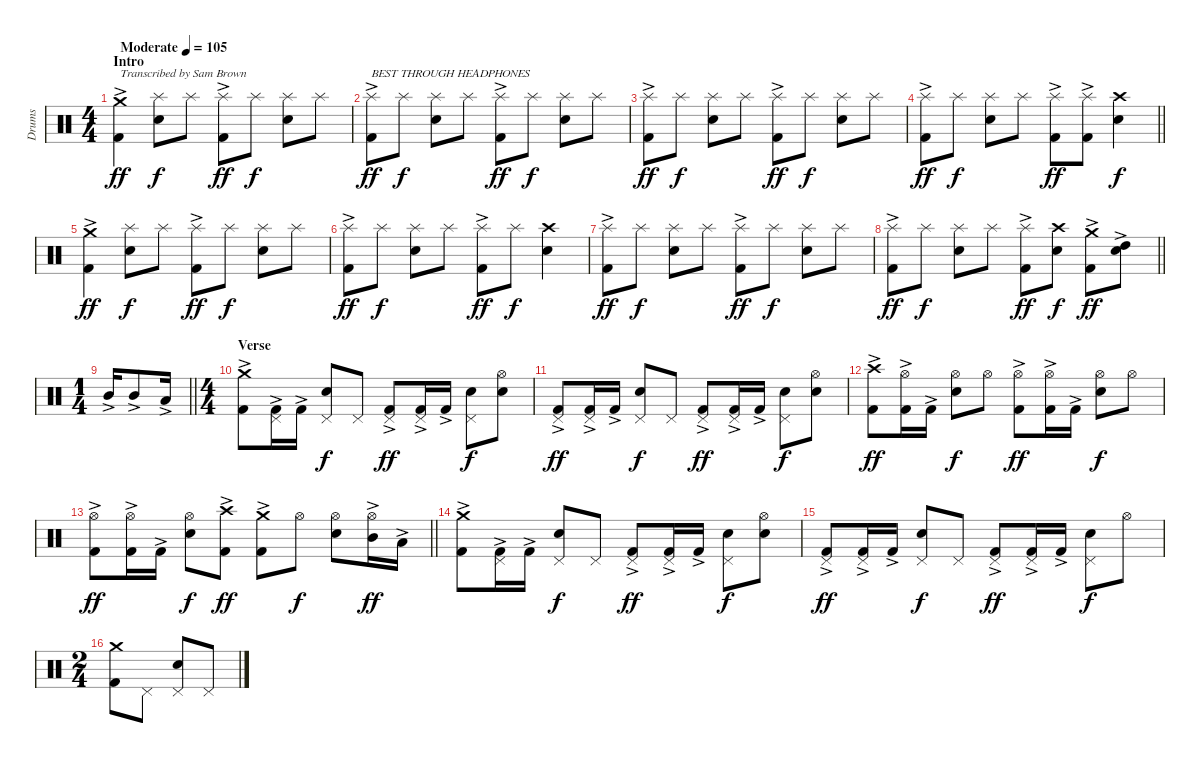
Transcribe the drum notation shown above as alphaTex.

\track ("Drums" "Drums") {instrument percussion}
\staff {score}
\articulation defaults
\ts (4 4)
\section ("" "Intro")
\tempo (105 "Moderate")
\clef neutral
\ks c
("Kick (hit) 2"{ac} "Crash medium (hit)").4{txt "Transcribed by Sam Brown" dy ff} ("Snare (hit) 2" "Splash (hit)").8{dy f} "Splash (hit)".8 ("Kick (hit) 2"{ac} "Splash (hit)").8{dy ff} "Splash (hit)".8{dy f} ("Snare (hit) 2" "Splash (hit)").8 "Splash (hit)".8 |
("Kick (hit) 2"{ac} "Splash (hit)").8{txt "BEST THROUGH HEADPHONES" dy ff} "Splash (hit)".8{dy f} ("Snare (hit) 2" "Splash (hit)").8 "Splash (hit)".8 ("Kick (hit) 2"{ac} "Splash (hit)").8{dy ff} "Splash (hit)".8{dy f} ("Snare (hit) 2" "Splash (hit)").8 "Splash (hit)".8 |
("Kick (hit) 2"{ac} "Splash (hit)").8{dy ff} "Splash (hit)".8{dy f} ("Snare (hit) 2" "Splash (hit)").8 "Splash (hit)".8 ("Kick (hit) 2"{ac} "Splash (hit)").8{dy ff} "Splash (hit)".8{dy f} ("Snare (hit) 2" "Splash (hit)").8 "Splash (hit)".8 |
\barLineRight lightlight
("Kick (hit) 2"{ac} "Splash (hit)").8{dy ff} "Splash (hit)".8{dy f} ("Snare (hit) 2" "Splash (hit)").8 "Splash (hit)".8 ("Kick (hit) 2"{ac} "Splash (hit)").8{dy ff} ("Kick (hit) 2"{ac} "Splash (hit)").8 ("Snare (hit) 2" "Crash high (hit)").4{dy f} |
\section ("" "")
("Kick (hit) 2"{ac} "Crash medium (hit)").4{dy ff} ("Snare (hit) 2" "Splash (hit)").8{dy f} "Splash (hit)".8 ("Kick (hit) 2"{ac} "Splash (hit)").8{dy ff} "Splash (hit)".8{dy f} ("Snare (hit) 2" "Splash (hit)").8 "Splash (hit)".8 |
("Kick (hit) 2"{ac} "Splash (hit)").8{dy ff} "Splash (hit)".8{dy f} ("Snare (hit) 2" "Splash (hit)").8 "Splash (hit)".8 ("Kick (hit) 2"{ac} "Splash (hit)").8{dy ff} "Splash (hit)".8{dy f} ("Snare (hit) 2" "Crash high (hit)").4 |
("Kick (hit) 2"{ac} "Splash (hit)").8{dy ff} "Splash (hit)".8{dy f} ("Snare (hit) 2" "Splash (hit)").8 "Splash (hit)".8 ("Kick (hit) 2"{ac} "Splash (hit)").8{dy ff} "Splash (hit)".8{dy f} ("Snare (hit) 2" "Splash (hit)").8 "Splash (hit)".8 |
\barLineRight lightlight
("Kick (hit) 2"{ac} "Splash (hit)").8{dy ff} "Splash (hit)".8{dy f} ("Snare (hit) 2" "Splash (hit)").8 "Splash (hit)".8 ("Kick (hit) 2"{ac} "Splash (hit)").8{dy ff} ("Snare (hit) 2" "Crash high (hit)").8{dy f} ("Kick (hit) 2"{ac} "Crash medium (hit)").8{dy ff} ("Snare (hit) 2" "High Tom (hit)"{ac}).8 |
\ts (1 4)
\section ("" "")
\barLineRight lightlight "Mid Tom (hit)"{ac}.16 "Mid Tom (hit)"{ac}.8 "Low Tom (hit)"{ac}.16
|
\ts (4 4)
\section ("" "Verse")
("Kick (hit) 2"{ac} "Crash medium (hit)").8 ("Kick (hit) 2"{ac} "Pedal Hi-Hat (hit)").16 "Kick (hit) 2"{ac}.16 ("Snare (hit) 2" "Pedal Hi-Hat (hit)").8{dy f} "Pedal Hi-Hat (hit)".8 ("Kick (hit) 2"{ac} "Pedal Hi-Hat (hit)").8{dy ff} ("Kick (hit) 2"{ac} "Pedal Hi-Hat (hit)").16 "Kick (hit) 2"{ac}.16 ("Snare (hit) 2" "Pedal Hi-Hat (hit)").8{dy f} ("Snare (hit) 2" "Hi-Hat (open)").8 |
("Kick (hit) 2"{ac} "Pedal Hi-Hat (hit)").8{dy ff} ("Kick (hit) 2"{ac} "Pedal Hi-Hat (hit)").16 "Kick (hit) 2"{ac}.16 ("Snare (hit) 2" "Pedal Hi-Hat (hit)").8{dy f} "Pedal Hi-Hat (hit)".8 ("Kick (hit) 2"{ac} "Pedal Hi-Hat (hit)").8{dy ff} ("Kick (hit) 2"{ac} "Pedal Hi-Hat (hit)").16 "Kick (hit) 2"{ac}.16 ("Snare (hit) 2" "Pedal Hi-Hat (hit)").8{dy f} ("Snare (hit) 2" "Hi-Hat (open)").8 |
("Kick (hit) 2"{ac} "Crash high (hit)").8{dy ff} ("Kick (hit) 2"{ac} "Hi-Hat (open)").16 "Kick (hit) 2"{ac}.16 ("Snare (hit) 2" "Hi-Hat (open)").8{dy f} "Hi-Hat (open)".8 ("Kick (hit) 2"{ac} "Hi-Hat (open)").8{dy ff} ("Kick (hit) 2"{ac} "Hi-Hat (open)").16 "Kick (hit) 2"{ac}.16 ("Snare (hit) 2" "Hi-Hat (open)").8{dy f} "Hi-Hat (open)".8 |
\barLineRight lightlight
("Kick (hit) 2"{ac} "Hi-Hat (open)").8{dy ff} ("Kick (hit) 2"{ac} "Hi-Hat (open)").16 "Kick (hit) 2"{ac}.16 ("Snare (hit) 2" "Hi-Hat (open)").8{dy f} ("Kick (hit) 2"{ac} "Crash high (hit)").8{dy ff} ("Kick (hit) 2"{ac} "Crash medium (hit)").8 "Hi-Hat (open)".8{dy f} ("Snare (hit) 2" "Hi-Hat (open)").8 ("Mid Tom (hit)"{ac} "Hi-Hat (open)").16{dy ff} "Low Tom (hit)"{ac}.16 |
\section ("" "")
("Kick (hit) 2"{ac} "Crash medium (hit)").8 ("Kick (hit) 2"{ac} "Pedal Hi-Hat (hit)").16 "Kick (hit) 2"{ac}.16 ("Snare (hit) 2" "Pedal Hi-Hat (hit)").8{dy f} "Pedal Hi-Hat (hit)".8 ("Kick (hit) 2"{ac} "Pedal Hi-Hat (hit)").8{dy ff} ("Kick (hit) 2"{ac} "Pedal Hi-Hat (hit)").16 "Kick (hit) 2"{ac}.16 ("Snare (hit) 2" "Pedal Hi-Hat (hit)").8{dy f} ("Snare (hit) 2" "Hi-Hat (open)").8 |
("Kick (hit) 2"{ac} "Pedal Hi-Hat (hit)").8{dy ff} ("Kick (hit) 2"{ac} "Pedal Hi-Hat (hit)").16 "Kick (hit) 2"{ac}.16 ("Snare (hit) 2" "Pedal Hi-Hat (hit)").8{dy f} "Pedal Hi-Hat (hit)".8 ("Kick (hit) 2"{ac} "Pedal Hi-Hat (hit)").8{dy ff} ("Kick (hit) 2"{ac} "Pedal Hi-Hat (hit)").16 "Kick (hit) 2"{ac}.16 ("Snare (hit) 2" "Pedal Hi-Hat (hit)").8{dy f} "Hi-Hat (open)".8 |
\ts (2 4)
("Kick (hit) 2" "Crash medium (hit)").8 "Pedal Hi-Hat (hit)".8 ("Snare (hit) 2" "Pedal Hi-Hat (hit)").8 "Pedal Hi-Hat (hit)".8
